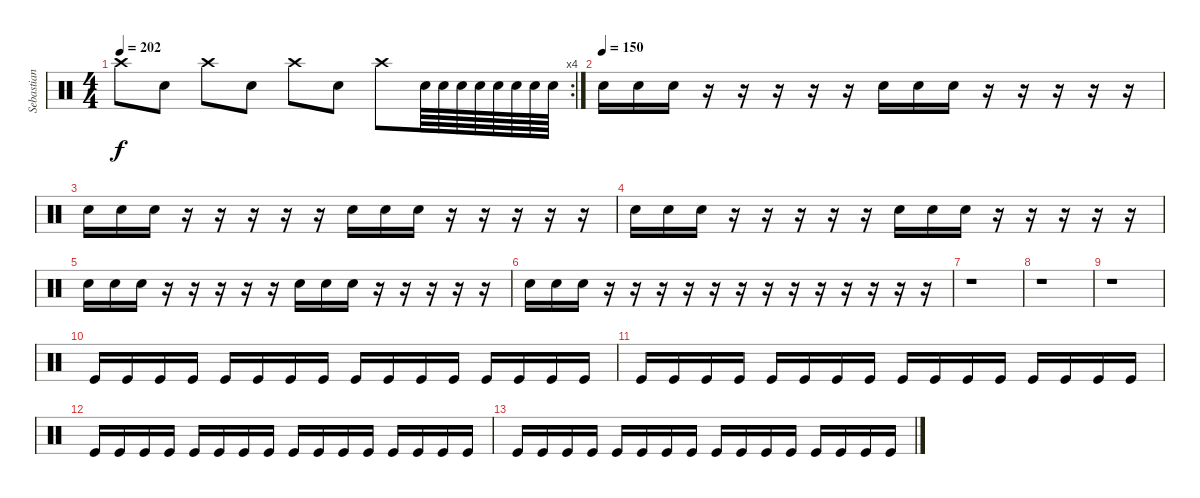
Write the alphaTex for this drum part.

\track ("Sebastian" "Sebastian") {instrument percussion}
\staff {score}
\articulation defaults
\rc 4
\ts (4 4)
\tempo 202
\clef neutral
\ks c "Crash high (hit)".8{dy f} "Electric Snare (hit)".8 "Crash high (hit)".8 "Electric Snare (hit)".8 "Crash high (hit)".8 "Electric Snare (hit)".8 "Crash high (hit)".8 "Electric Snare (hit)".64 "Electric Snare (hit)".64 "Electric Snare (hit)".64 "Electric Snare (hit)".64 "Electric Snare (hit)".64 "Electric Snare (hit)".64 "Electric Snare (hit)".64 "Electric Snare (hit)".64
|
\tempo (150)
"Electric Snare (hit)".16 "Electric Snare (hit)".16 "Electric Snare (hit)".16 r.16 r.16 r.16 r.16 r.16 "Electric Snare (hit)".16 "Electric Snare (hit)".16 "Electric Snare (hit)".16 r.16 r.16 r.16 r.16 r.16 |
"Electric Snare (hit)".16 "Electric Snare (hit)".16 "Electric Snare (hit)".16 r.16 r.16 r.16 r.16 r.16 "Electric Snare (hit)".16 "Electric Snare (hit)".16 "Electric Snare (hit)".16 r.16 r.16 r.16 r.16 r.16 |
"Electric Snare (hit)".16 "Electric Snare (hit)".16 "Electric Snare (hit)".16 r.16 r.16 r.16 r.16 r.16 "Electric Snare (hit)".16 "Electric Snare (hit)".16 "Electric Snare (hit)".16 r.16 r.16 r.16 r.16 r.16 |
"Electric Snare (hit)".16 "Electric Snare (hit)".16 "Electric Snare (hit)".16 r.16 r.16 r.16 r.16 r.16 "Electric Snare (hit)".16 "Electric Snare (hit)".16 "Electric Snare (hit)".16 r.16 r.16 r.16 r.16 r.16 |
"Electric Snare (hit)".16 "Electric Snare (hit)".16 "Electric Snare (hit)".16 r.16 r.16 r.16 r.16 r.16 r.16 r.16 r.16 r.16 r.16 r.16 r.16 r.16 |
r.1 |
r.1 |
r.1 |
"Kick (hit)".16 "Kick (hit)".16 "Kick (hit)".16 "Kick (hit)".16 "Kick (hit)".16 "Kick (hit)".16 "Kick (hit)".16 "Kick (hit)".16 "Kick (hit)".16 "Kick (hit)".16 "Kick (hit)".16 "Kick (hit)".16 "Kick (hit)".16 "Kick (hit)".16 "Kick (hit)".16 "Kick (hit)".16 |
"Kick (hit)".16 "Kick (hit)".16 "Kick (hit)".16 "Kick (hit)".16 "Kick (hit)".16 "Kick (hit)".16 "Kick (hit)".16 "Kick (hit)".16 "Kick (hit)".16 "Kick (hit)".16 "Kick (hit)".16 "Kick (hit)".16 "Kick (hit)".16 "Kick (hit)".16 "Kick (hit)".16 "Kick (hit)".16 |
"Kick (hit)".16 "Kick (hit)".16 "Kick (hit)".16 "Kick (hit)".16 "Kick (hit)".16 "Kick (hit)".16 "Kick (hit)".16 "Kick (hit)".16 "Kick (hit)".16 "Kick (hit)".16 "Kick (hit)".16 "Kick (hit)".16 "Kick (hit)".16 "Kick (hit)".16 "Kick (hit)".16 "Kick (hit)".16 |
"Kick (hit)".16 "Kick (hit)".16 "Kick (hit)".16 "Kick (hit)".16 "Kick (hit)".16 "Kick (hit)".16 "Kick (hit)".16 "Kick (hit)".16 "Kick (hit)".16 "Kick (hit)".16 "Kick (hit)".16 "Kick (hit)".16 "Kick (hit)".16 "Kick (hit)".16 "Kick (hit)".16 "Kick (hit)".16
